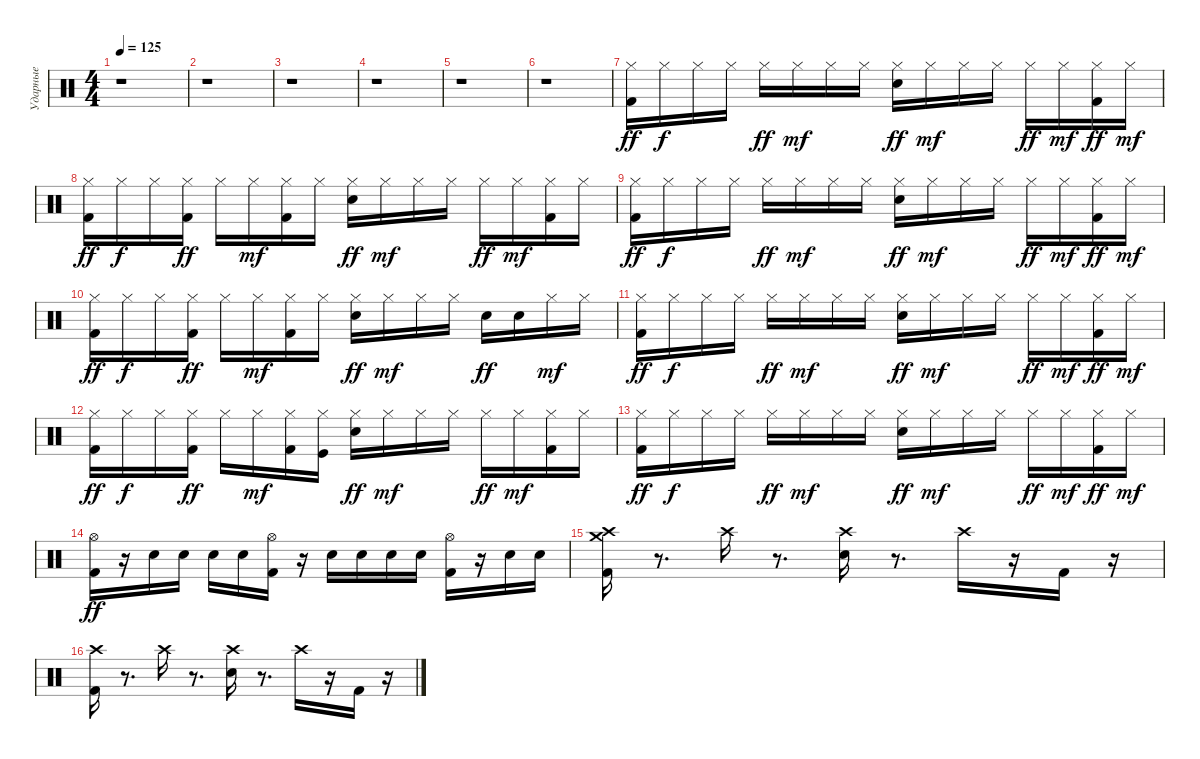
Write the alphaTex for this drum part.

\track ("Ударные" "Ударные") {instrument percussion}
\staff {score}
\articulation defaults
\ts (4 4)
\tempo 125
\clef neutral
\ks c
r.1{dy ff} |
r.1 |
r.1 |
r.1 |
r.1 |
r.1 |
("Hi-Hat (closed)" "Kick (hit) 2").16 "Hi-Hat (closed)".16{dy f} "Hi-Hat (closed)".16 "Hi-Hat (closed)".16 "Hi-Hat (closed)".16{dy ff} "Hi-Hat (closed)".16{dy mf} "Hi-Hat (closed)".16 "Hi-Hat (closed)".16 ("Hi-Hat (closed)" "Snare (hit) 2").16{dy ff} "Hi-Hat (closed)".16{dy mf} "Hi-Hat (closed)".16 "Hi-Hat (closed)".16 "Hi-Hat (closed)".16{dy ff} "Hi-Hat (closed)".16{dy mf} ("Hi-Hat (closed)" "Kick (hit) 2").16{dy ff} "Hi-Hat (closed)".16{dy mf} |
("Kick (hit) 2" "Hi-Hat (closed)").16{dy ff} "Hi-Hat (closed)".16{dy f} "Hi-Hat (closed)".16 ("Kick (hit) 2" "Hi-Hat (closed)").16{dy ff} "Hi-Hat (closed)".16 "Hi-Hat (closed)".16{dy mf} ("Kick (hit) 2" "Hi-Hat (closed)").16 "Hi-Hat (closed)".16 ("Snare (hit) 2" "Hi-Hat (closed)").16{dy ff} "Hi-Hat (closed)".16{dy mf} "Hi-Hat (closed)".16 "Hi-Hat (closed)".16 "Hi-Hat (closed)".16{dy ff} "Hi-Hat (closed)".16{dy mf} ("Kick (hit) 2" "Hi-Hat (closed)").16 "Hi-Hat (closed)".16 |
("Hi-Hat (closed)" "Kick (hit) 2").16{dy ff} "Hi-Hat (closed)".16{dy f} "Hi-Hat (closed)".16 "Hi-Hat (closed)".16 "Hi-Hat (closed)".16{dy ff} "Hi-Hat (closed)".16{dy mf} "Hi-Hat (closed)".16 "Hi-Hat (closed)".16 ("Hi-Hat (closed)" "Snare (hit) 2").16{dy ff} "Hi-Hat (closed)".16{dy mf} "Hi-Hat (closed)".16 "Hi-Hat (closed)".16 "Hi-Hat (closed)".16{dy ff} "Hi-Hat (closed)".16{dy mf} ("Hi-Hat (closed)" "Kick (hit) 2").16{dy ff} "Hi-Hat (closed)".16{dy mf} |
("Kick (hit) 2" "Hi-Hat (closed)").16{dy ff} "Hi-Hat (closed)".16{dy f} "Hi-Hat (closed)".16 ("Kick (hit) 2" "Hi-Hat (closed)").16{dy ff} "Hi-Hat (closed)".16 "Hi-Hat (closed)".16{dy mf} ("Kick (hit) 2" "Hi-Hat (closed)").16 "Hi-Hat (closed)".16 ("Snare (hit) 2" "Hi-Hat (closed)").16{dy ff} "Hi-Hat (closed)".16{dy mf} "Hi-Hat (closed)".16 "Hi-Hat (closed)".16 "Snare (hit) 2".16{dy ff} "Snare (hit) 2".16 "Hi-Hat (closed)".16{dy mf} "Hi-Hat (closed)".16 |
("Hi-Hat (closed)" "Kick (hit) 2").16{dy ff} "Hi-Hat (closed)".16{dy f} "Hi-Hat (closed)".16 "Hi-Hat (closed)".16 "Hi-Hat (closed)".16{dy ff} "Hi-Hat (closed)".16{dy mf} "Hi-Hat (closed)".16 "Hi-Hat (closed)".16 ("Hi-Hat (closed)" "Snare (hit) 2").16{dy ff} "Hi-Hat (closed)".16{dy mf} "Hi-Hat (closed)".16 "Hi-Hat (closed)".16 "Hi-Hat (closed)".16{dy ff} "Hi-Hat (closed)".16{dy mf} ("Hi-Hat (closed)" "Kick (hit) 2").16{dy ff} "Hi-Hat (closed)".16{dy mf} |
("Kick (hit) 2" "Hi-Hat (closed)").16{dy ff} "Hi-Hat (closed)".16{dy f} "Hi-Hat (closed)".16 ("Kick (hit) 2" "Hi-Hat (closed)").16{dy ff} "Hi-Hat (closed)".16 "Hi-Hat (closed)".16{dy mf} ("Kick (hit) 2" "Hi-Hat (closed)").16 ("Kick (hit)" "Hi-Hat (closed)").16 ("Snare (hit) 2" "Hi-Hat (closed)").16{dy ff} "Hi-Hat (closed)".16{dy mf} "Hi-Hat (closed)".16 "Hi-Hat (closed)".16 "Hi-Hat (closed)".16{dy ff} "Hi-Hat (closed)".16{dy mf} ("Kick (hit) 2" "Hi-Hat (closed)").16 "Hi-Hat (closed)".16 |
("Hi-Hat (closed)" "Kick (hit) 2").16{dy ff} "Hi-Hat (closed)".16{dy f} "Hi-Hat (closed)".16 "Hi-Hat (closed)".16 "Hi-Hat (closed)".16{dy ff} "Hi-Hat (closed)".16{dy mf} "Hi-Hat (closed)".16 "Hi-Hat (closed)".16 ("Hi-Hat (closed)" "Snare (hit) 2").16{dy ff} "Hi-Hat (closed)".16{dy mf} "Hi-Hat (closed)".16 "Hi-Hat (closed)".16 "Hi-Hat (closed)".16{dy ff} "Hi-Hat (closed)".16{dy mf} ("Hi-Hat (closed)" "Kick (hit) 2").16{dy ff} "Hi-Hat (closed)".16{dy mf} |
("Hi-Hat (open)" "Kick (hit) 2").16{dy ff} r.16 "Snare (hit) 2".16 "Snare (hit) 2".16 "Snare (hit) 2".16 "Snare (hit) 2".16 ("Hi-Hat (open)" "Kick (hit) 2").16 r.16 "Snare (hit) 2".16 "Snare (hit) 2".16 "Snare (hit) 2".16 "Snare (hit) 2".16 ("Hi-Hat (open)" "Kick (hit) 2").16 r.16 "Snare (hit) 2".16 "Snare (hit) 2".16 |
("Crash medium (hit)" "Crash high (hit)" "Kick (hit) 2").16 r.8{d} "Crash high (hit)".16 r.8{d} ("Crash high (hit)" "Snare (hit) 2").16 r.8{d} "Crash high (hit)".16 r.16 "Kick (hit) 2".16 r.16 |
("Crash high (hit)" "Kick (hit) 2").16 r.8{d} "Crash high (hit)".16 r.8{d} ("Crash high (hit)" "Snare (hit) 2").16 r.8{d} "Crash high (hit)".16 r.16 "Kick (hit) 2".16 r.16
